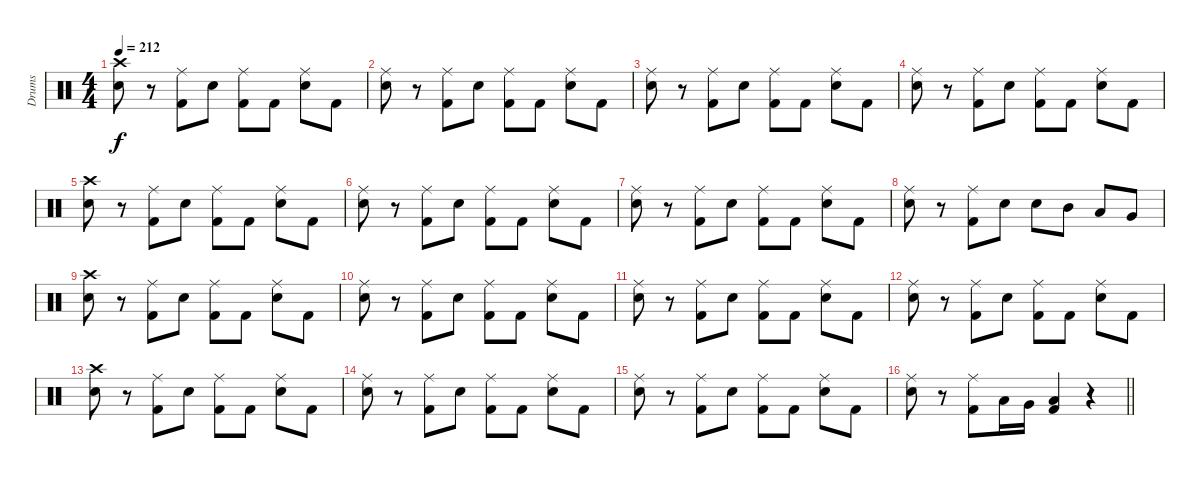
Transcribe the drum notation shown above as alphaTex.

\track ("Drums" "Drums") {instrument percussion}
\staff {score}
\articulation defaults
\ts (4 4)
\tempo 212
\clef neutral
\ks c
("Crash high (hit)" "Snare (hit) 2").8{dy f} r.8 ("Ride (middle)" "Kick (hit) 2").8 "Snare (hit) 2".8 ("Ride (middle)" "Kick (hit) 2").8 "Kick (hit) 2".8 ("Ride (middle)" "Snare (hit) 2").8 "Kick (hit) 2".8 |
("Ride (middle)" "Snare (hit) 2").8 r.8 ("Ride (middle)" "Kick (hit) 2").8 "Snare (hit) 2".8 ("Ride (middle)" "Kick (hit) 2").8 "Kick (hit) 2".8 ("Ride (middle)" "Snare (hit) 2").8 "Kick (hit) 2".8 |
("Ride (middle)" "Snare (hit) 2").8 r.8 ("Ride (middle)" "Kick (hit) 2").8 "Snare (hit) 2".8 ("Ride (middle)" "Kick (hit) 2").8 "Kick (hit) 2".8 ("Ride (middle)" "Snare (hit) 2").8 "Kick (hit) 2".8 |
("Ride (middle)" "Snare (hit) 2").8 r.8 ("Ride (middle)" "Kick (hit) 2").8 "Snare (hit) 2".8 ("Ride (middle)" "Kick (hit) 2").8 "Kick (hit) 2".8 ("Ride (middle)" "Snare (hit) 2").8 "Kick (hit) 2".8 |
("Crash high (hit)" "Snare (hit) 2").8 r.8 ("Ride (middle)" "Kick (hit) 2").8 "Snare (hit) 2".8 ("Ride (middle)" "Kick (hit) 2").8 "Kick (hit) 2".8 ("Ride (middle)" "Snare (hit) 2").8 "Kick (hit) 2".8 |
("Ride (middle)" "Snare (hit) 2").8 r.8 ("Ride (middle)" "Kick (hit) 2").8 "Snare (hit) 2".8 ("Ride (middle)" "Kick (hit) 2").8 "Kick (hit) 2".8 ("Ride (middle)" "Snare (hit) 2").8 "Kick (hit) 2".8 |
("Ride (middle)" "Snare (hit) 2").8 r.8 ("Ride (middle)" "Kick (hit) 2").8 "Snare (hit) 2".8 ("Ride (middle)" "Kick (hit) 2").8 "Kick (hit) 2".8 ("Ride (middle)" "Snare (hit) 2").8 "Kick (hit) 2".8 |
("Ride (middle)" "Snare (hit) 2").8 r.8 ("Ride (middle)" "Kick (hit) 2").8 "Snare (hit) 2".8 "Snare (hit) 2".8 "Mid Tom (hit)".8 "Low Tom (hit)".8 "Very Low Tom (hit)".8 |
("Crash high (hit)" "Snare (hit) 2").8 r.8 ("Ride (middle)" "Kick (hit) 2").8 "Snare (hit) 2".8 ("Ride (middle)" "Kick (hit) 2").8 "Kick (hit) 2".8 ("Ride (middle)" "Snare (hit) 2").8 "Kick (hit) 2".8 |
("Ride (middle)" "Snare (hit) 2").8 r.8 ("Ride (middle)" "Kick (hit) 2").8 "Snare (hit) 2".8 ("Ride (middle)" "Kick (hit) 2").8 "Kick (hit) 2".8 ("Ride (middle)" "Snare (hit) 2").8 "Kick (hit) 2".8 |
("Ride (middle)" "Snare (hit) 2").8 r.8 ("Ride (middle)" "Kick (hit) 2").8 "Snare (hit) 2".8 ("Ride (middle)" "Kick (hit) 2").8 "Kick (hit) 2".8 ("Ride (middle)" "Snare (hit) 2").8 "Kick (hit) 2".8 |
("Ride (middle)" "Snare (hit) 2").8 r.8 ("Ride (middle)" "Kick (hit) 2").8 "Snare (hit) 2".8 ("Ride (middle)" "Kick (hit) 2").8 "Kick (hit) 2".8 ("Ride (middle)" "Snare (hit) 2").8 "Kick (hit) 2".8 |
("Crash high (hit)" "Snare (hit) 2").8 r.8 ("Ride (middle)" "Kick (hit) 2").8 "Snare (hit) 2".8 ("Ride (middle)" "Kick (hit) 2").8 "Kick (hit) 2".8 ("Ride (middle)" "Snare (hit) 2").8 "Kick (hit) 2".8 |
("Ride (middle)" "Snare (hit) 2").8 r.8 ("Ride (middle)" "Kick (hit) 2").8 "Snare (hit) 2".8 ("Ride (middle)" "Kick (hit) 2").8 "Kick (hit) 2".8 ("Ride (middle)" "Snare (hit) 2").8 "Kick (hit) 2".8 |
("Ride (middle)" "Snare (hit) 2").8 r.8 ("Ride (middle)" "Kick (hit) 2").8 "Snare (hit) 2".8 ("Ride (middle)" "Kick (hit) 2").8 "Kick (hit) 2".8 ("Ride (middle)" "Snare (hit) 2").8 "Kick (hit) 2".8 |
\barLineRight lightlight
("Ride (middle)" "Snare (hit) 2").8 r.8 ("Ride (middle)" "Kick (hit) 2").8 "Low Tom (hit)".16 "Very Low Tom (hit)".16 ("Low Floor Tom (hit)" "Kick (hit) 2").4 r.4
